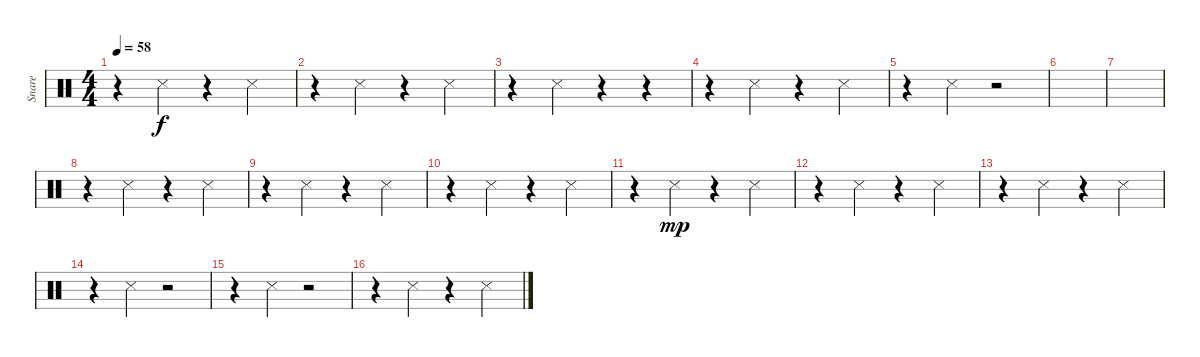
\track ("Snare" "Snare") {instrument percussion}
\staff {score}
\articulation defaults
\ts (4 4)
\tempo 58
\clef neutral
\ks c
r.4{dy f} "Snare (side stick) 3".4 r.4 "Snare (side stick) 3".4 |
r.4 "Snare (side stick) 3".4 r.4 "Snare (side stick) 3".4 |
r.4 "Snare (side stick) 3".4 r.4 r.4 |
r.4 "Snare (side stick) 3".4 r.4 "Snare (side stick) 3".4 |
r.4 "Snare (side stick) 3".4 r.2 |
|
|
r.4 "Snare (side stick) 3".4 r.4 "Snare (side stick) 3".4 |
r.4 "Snare (side stick) 3".4 r.4 "Snare (side stick) 3".4 |
r.4 "Snare (side stick) 3".4 r.4 "Snare (side stick) 3".4 |
r.4 "Snare (side stick) 3".4{dy mp} r.4 "Snare (side stick) 3".4 |
r.4 "Snare (side stick) 3".4 r.4 "Snare (side stick) 3".4 |
r.4 "Snare (side stick) 3".4 r.4 "Snare (side stick) 3".4 |
r.4 "Snare (side stick) 3".4 r.2 |
r.4 "Snare (side stick) 3".4 r.2 |
r.4 "Snare (side stick) 3".4 r.4 "Snare (side stick) 3".4
